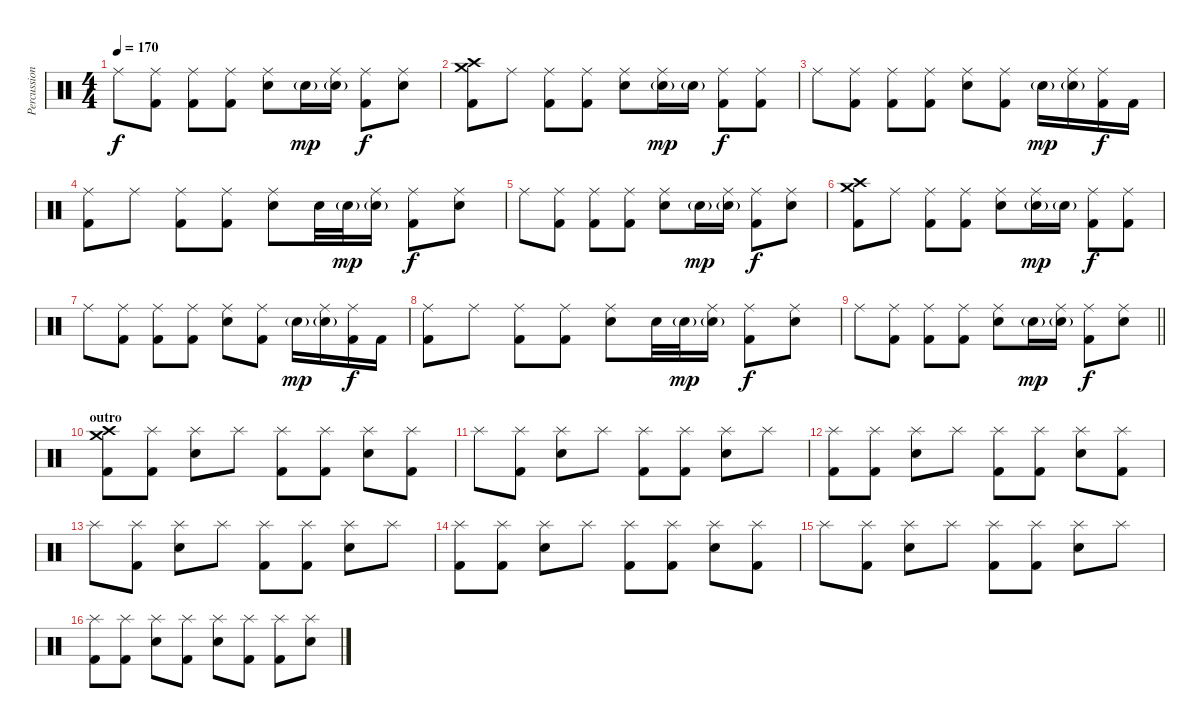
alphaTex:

\track ("Percussion" "Percussion") {instrument percussion}
\staff {score}
\articulation defaults
\ts (4 4)
\tempo 170
\clef neutral
\ks c "Ride (middle)".8{dy f}
("Ride (middle)" "Kick (hit) 2").8 ("Ride (middle)" "Kick (hit) 2").8 ("Ride (middle)" "Kick (hit) 2").8 ("Ride (middle)" "Electric Snare (hit)").8 "Electric Snare (hit)"{g}.16{dy mp} ("Ride (middle)" "Electric Snare (hit)"{g}).16 ("Ride (middle)" "Kick (hit) 2").8{dy f} ("Ride (middle)" "Electric Snare (hit)").8 |
("Crash medium (hit)" "Crash high (hit)" "Kick (hit) 2").8 "Ride (middle)".8 ("Ride (middle)" "Kick (hit) 2").8 ("Ride (middle)" "Kick (hit) 2").8 ("Ride (middle)" "Electric Snare (hit)").8 ("Ride (middle)" "Electric Snare (hit)"{g}).16{dy mp} "Electric Snare (hit)"{g}.16 ("Ride (middle)" "Kick (hit) 2").8{dy f} ("Ride (middle)" "Kick (hit) 2").8 |
"Ride (middle)".8 ("Ride (middle)" "Kick (hit) 2").8 ("Ride (middle)" "Kick (hit) 2").8 ("Ride (middle)" "Kick (hit) 2").8 ("Ride (middle)" "Electric Snare (hit)").8 ("Ride (middle)" "Kick (hit) 2").8 "Electric Snare (hit)"{g}.16{dy mp} ("Ride (middle)" "Electric Snare (hit)"{g}).16 ("Ride (middle)" "Kick (hit) 2").16{dy f} "Kick (hit) 2".16 |
("Ride (middle)" "Kick (hit) 2").8 "Ride (middle)".8 ("Ride (middle)" "Kick (hit) 2").8 ("Ride (middle)" "Kick (hit) 2").8 ("Ride (middle)" "Electric Snare (hit)").8 "Electric Snare (hit)".32 "Electric Snare (hit)"{g}.32{dy mp} ("Ride (middle)" "Electric Snare (hit)"{g}).16 ("Ride (middle)" "Kick (hit) 2").8{dy f} ("Ride (middle)" "Electric Snare (hit)").8 |
"Ride (middle)".8 ("Ride (middle)" "Kick (hit) 2").8 ("Ride (middle)" "Kick (hit) 2").8 ("Ride (middle)" "Kick (hit) 2").8 ("Ride (middle)" "Electric Snare (hit)").8 "Electric Snare (hit)"{g}.16{dy mp} ("Ride (middle)" "Electric Snare (hit)"{g}).16 ("Ride (middle)" "Kick (hit) 2").8{dy f} ("Ride (middle)" "Electric Snare (hit)").8 |
("Crash medium (hit)" "Crash high (hit)" "Kick (hit) 2").8 "Ride (middle)".8 ("Ride (middle)" "Kick (hit) 2").8 ("Ride (middle)" "Kick (hit) 2").8 ("Ride (middle)" "Electric Snare (hit)").8 ("Ride (middle)" "Electric Snare (hit)"{g}).16{dy mp} "Electric Snare (hit)"{g}.16 ("Ride (middle)" "Kick (hit) 2").8{dy f} ("Ride (middle)" "Kick (hit) 2").8 |
"Ride (middle)".8 ("Ride (middle)" "Kick (hit) 2").8 ("Ride (middle)" "Kick (hit) 2").8 ("Ride (middle)" "Kick (hit) 2").8 ("Ride (middle)" "Electric Snare (hit)").8 ("Ride (middle)" "Kick (hit) 2").8 "Electric Snare (hit)"{g}.16{dy mp} ("Ride (middle)" "Electric Snare (hit)"{g}).16 ("Ride (middle)" "Kick (hit) 2").16{dy f} "Kick (hit) 2".16 |
("Ride (middle)" "Kick (hit) 2").8 "Ride (middle)".8 ("Ride (middle)" "Kick (hit) 2").8 ("Ride (middle)" "Kick (hit) 2").8 ("Ride (middle)" "Electric Snare (hit)").8 "Electric Snare (hit)".32 "Electric Snare (hit)"{g}.32{dy mp} ("Ride (middle)" "Electric Snare (hit)"{g}).16 ("Ride (middle)" "Kick (hit) 2").8{dy f} ("Ride (middle)" "Electric Snare (hit)").8 |
\barLineRight lightlight "Ride (middle)".8
("Ride (middle)" "Kick (hit) 2").8 ("Ride (middle)" "Kick (hit) 2").8 ("Ride (middle)" "Kick (hit) 2").8 ("Ride (middle)" "Electric Snare (hit)").8 "Electric Snare (hit)"{g}.16{dy mp} ("Ride (middle)" "Electric Snare (hit)"{g}).16 ("Ride (middle)" "Kick (hit) 2").8{dy f} ("Ride (middle)" "Electric Snare (hit)").8 |
\section ("" "outro")
("Crash medium (hit)" "Crash high (hit)" "Kick (hit) 2").8 ("Splash (hit)" "Kick (hit) 2").8 ("Splash (hit)" "Electric Snare (hit)").8 "Splash (hit)".8 ("Splash (hit)" "Kick (hit) 2").8 ("Splash (hit)" "Kick (hit) 2").8 ("Splash (hit)" "Electric Snare (hit)").8 ("Splash (hit)" "Kick (hit) 2").8 |
"Splash (hit)".8 ("Splash (hit)" "Kick (hit) 2").8 ("Splash (hit)" "Electric Snare (hit)").8 "Splash (hit)".8 ("Splash (hit)" "Kick (hit) 2").8 ("Splash (hit)" "Kick (hit) 2").8 ("Splash (hit)" "Electric Snare (hit)").8 "Splash (hit)".8 |
("Splash (hit)" "Kick (hit) 2").8 ("Splash (hit)" "Kick (hit) 2").8 ("Splash (hit)" "Electric Snare (hit)").8 "Splash (hit)".8 ("Splash (hit)" "Kick (hit) 2").8 ("Splash (hit)" "Kick (hit) 2").8 ("Splash (hit)" "Electric Snare (hit)").8 ("Splash (hit)" "Kick (hit) 2").8 |
"Splash (hit)".8 ("Splash (hit)" "Kick (hit) 2").8 ("Splash (hit)" "Electric Snare (hit)").8 "Splash (hit)".8 ("Splash (hit)" "Kick (hit) 2").8 ("Splash (hit)" "Kick (hit) 2").8 ("Splash (hit)" "Electric Snare (hit)").8 "Splash (hit)".8 |
("Splash (hit)" "Kick (hit) 2").8 ("Splash (hit)" "Kick (hit) 2").8 ("Splash (hit)" "Electric Snare (hit)").8 "Splash (hit)".8 ("Splash (hit)" "Kick (hit) 2").8 ("Splash (hit)" "Kick (hit) 2").8 ("Splash (hit)" "Electric Snare (hit)").8 ("Splash (hit)" "Kick (hit) 2").8 |
"Splash (hit)".8 ("Splash (hit)" "Kick (hit) 2").8 ("Splash (hit)" "Electric Snare (hit)").8 "Splash (hit)".8 ("Splash (hit)" "Kick (hit) 2").8 ("Splash (hit)" "Kick (hit) 2").8 ("Splash (hit)" "Electric Snare (hit)").8 "Splash (hit)".8 |
("Splash (hit)" "Kick (hit) 2").8 ("Splash (hit)" "Kick (hit) 2").8 ("Splash (hit)" "Electric Snare (hit)").8 ("Splash (hit)" "Kick (hit) 2").8 ("Splash (hit)" "Electric Snare (hit)").8 ("Splash (hit)" "Kick (hit) 2").8 ("Splash (hit)" "Kick (hit) 2").8 ("Splash (hit)" "Electric Snare (hit)").8
